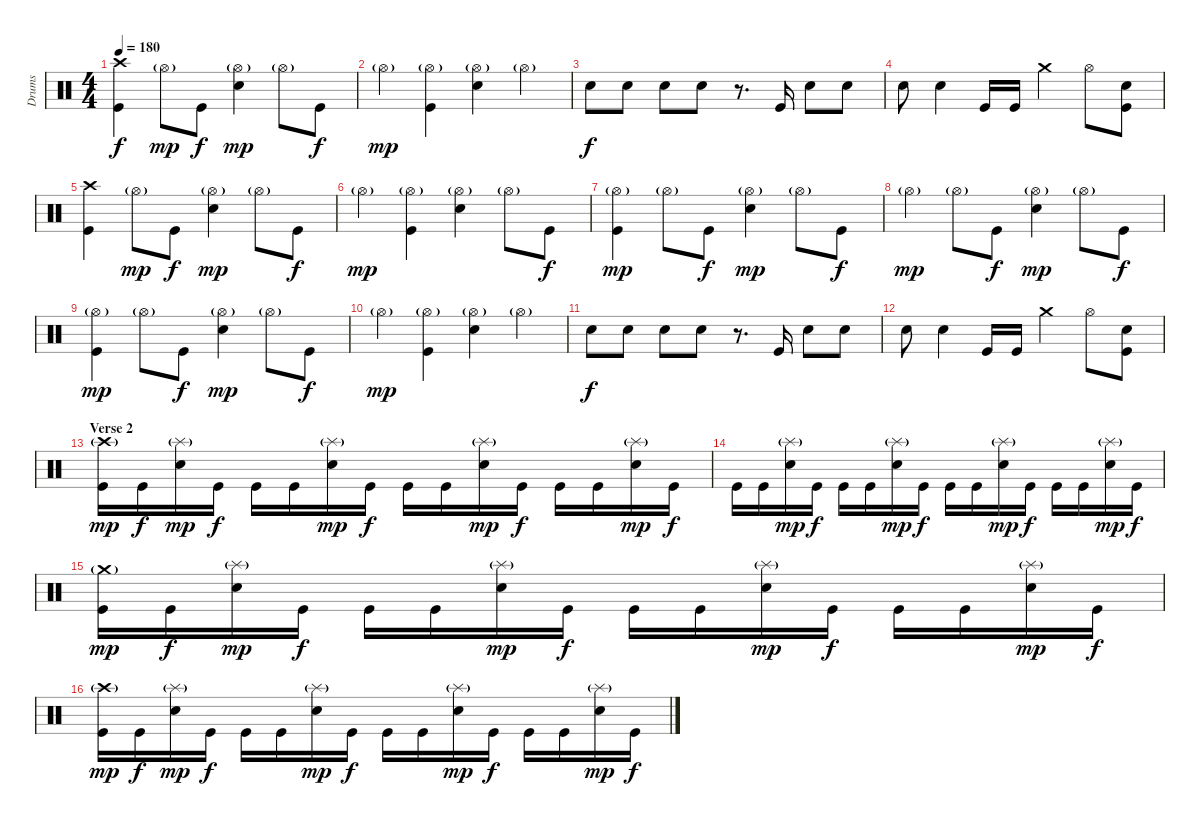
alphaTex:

\track ("Drums" "Drums") {instrument percussion}
\staff {score}
\articulation defaults
\ts (4 4)
\tempo 180
\clef neutral
\ks c
("Crash high (hit)" "Kick (hit)").4{dy f} "Hi-Hat (open)"{g}.8{dy mp} "Kick (hit)".8{dy f} ("Hi-Hat (open)"{g} "Snare (hit) 2").4{dy mp} "Hi-Hat (open)"{g}.8 "Kick (hit)".8{dy f} |
"Hi-Hat (open)"{g}.4{dy mp} ("Hi-Hat (open)"{g} "Kick (hit)").4 ("Hi-Hat (open)"{g} "Snare (hit) 2").4 "Hi-Hat (open)"{g}.4 |
"Electric Snare (hit)".8{dy f} "Electric Snare (hit)".8 "Electric Snare (hit)".8 "Electric Snare (hit)".8 r.8{d} "Kick (hit)".16 "Electric Snare (hit)".8 "Electric Snare (hit)".8 |
"Electric Snare (hit)".8 "Electric Snare (hit)".4 "Kick (hit)".16 "Kick (hit)".16 "Crash medium (hit)".4 "Hi-Hat (open)".8 ("Electric Snare (hit)" "Kick (hit)").8 |
("Crash high (hit)" "Kick (hit)").4 "Hi-Hat (open)"{g}.8{dy mp} "Kick (hit)".8{dy f} ("Hi-Hat (open)"{g} "Snare (hit) 2").4{dy mp} "Hi-Hat (open)"{g}.8 "Kick (hit)".8{dy f} |
"Hi-Hat (open)"{g}.4{dy mp} ("Hi-Hat (open)"{g} "Kick (hit)").4 ("Hi-Hat (open)"{g} "Snare (hit) 2").4 "Hi-Hat (open)"{g}.8 "Kick (hit)".8{dy f} |
("Hi-Hat (open)"{g} "Kick (hit)").4{dy mp} "Hi-Hat (open)"{g}.8 "Kick (hit)".8{dy f} ("Hi-Hat (open)"{g} "Snare (hit) 2").4{dy mp} "Hi-Hat (open)"{g}.8 "Kick (hit)".8{dy f} |
"Hi-Hat (open)"{g}.4{dy mp} "Hi-Hat (open)"{g}.8 "Kick (hit)".8{dy f} ("Hi-Hat (open)"{g} "Snare (hit) 2").4{dy mp} "Hi-Hat (open)"{g}.8 "Kick (hit)".8{dy f} |
("Hi-Hat (open)"{g} "Kick (hit)").4{dy mp} "Hi-Hat (open)"{g}.8 "Kick (hit)".8{dy f} ("Hi-Hat (open)"{g} "Snare (hit) 2").4{dy mp} "Hi-Hat (open)"{g}.8 "Kick (hit)".8{dy f} |
"Hi-Hat (open)"{g}.4{dy mp} ("Hi-Hat (open)"{g} "Kick (hit)").4 ("Hi-Hat (open)"{g} "Snare (hit) 2").4 "Hi-Hat (open)"{g}.4 |
"Electric Snare (hit)".8{dy f} "Electric Snare (hit)".8 "Electric Snare (hit)".8 "Electric Snare (hit)".8 r.8{d} "Kick (hit)".16 "Electric Snare (hit)".8 "Electric Snare (hit)".8 |
"Electric Snare (hit)".8 "Electric Snare (hit)".4 "Kick (hit)".16 "Kick (hit)".16 "Crash medium (hit)".4 "Hi-Hat (open)".8 ("Electric Snare (hit)" "Kick (hit)").8 |
\section ("" "Verse 2")
("Crash high (hit)"{g} "Kick (hit)").16{dy mp} "Kick (hit)".16{dy f} ("Splash (hit)"{g} "Snare (hit) 2").16{dy mp} "Kick (hit)".16{dy f} "Kick (hit)".16 "Kick (hit)".16 ("Splash (hit)"{g} "Snare (hit) 2").16{dy mp} "Kick (hit)".16{dy f} "Kick (hit)".16 "Kick (hit)".16 ("Splash (hit)"{g} "Snare (hit) 2").16{dy mp} "Kick (hit)".16{dy f} "Kick (hit)".16 "Kick (hit)".16 ("Splash (hit)"{g} "Snare (hit) 2").16{dy mp} "Kick (hit)".16{dy f} |
"Kick (hit)".16 "Kick (hit)".16 ("Splash (hit)"{g} "Snare (hit) 2").16{dy mp} "Kick (hit)".16{dy f} "Kick (hit)".16 "Kick (hit)".16 ("Splash (hit)"{g} "Snare (hit) 2").16{dy mp} "Kick (hit)".16{dy f} "Kick (hit)".16 "Kick (hit)".16 ("Splash (hit)"{g} "Snare (hit) 2").16{dy mp} "Kick (hit)".16{dy f} "Kick (hit)".16 "Kick (hit)".16 ("Splash (hit)"{g} "Snare (hit) 2").16{dy mp} "Kick (hit)".16{dy f} |
("Crash medium (hit)"{g} "Kick (hit)").16{dy mp} "Kick (hit)".16{dy f} ("Splash (hit)"{g} "Snare (hit) 2").16{dy mp} "Kick (hit)".16{dy f} "Kick (hit)".16 "Kick (hit)".16 ("Splash (hit)"{g} "Snare (hit) 2").16{dy mp} "Kick (hit)".16{dy f} "Kick (hit)".16 "Kick (hit)".16 ("Splash (hit)"{g} "Snare (hit) 2").16{dy mp} "Kick (hit)".16{dy f} "Kick (hit)".16 "Kick (hit)".16 ("Splash (hit)"{g} "Snare (hit) 2").16{dy mp} "Kick (hit)".16{dy f} |
("Crash high (hit)"{g} "Kick (hit)").16{dy mp} "Kick (hit)".16{dy f} ("Splash (hit)"{g} "Snare (hit) 2").16{dy mp} "Kick (hit)".16{dy f} "Kick (hit)".16 "Kick (hit)".16 ("Splash (hit)"{g} "Snare (hit) 2").16{dy mp} "Kick (hit)".16{dy f} "Kick (hit)".16 "Kick (hit)".16 ("Splash (hit)"{g} "Snare (hit) 2").16{dy mp} "Kick (hit)".16{dy f} "Kick (hit)".16 "Kick (hit)".16 ("Splash (hit)"{g} "Snare (hit) 2").16{dy mp} "Kick (hit)".16{dy f}
